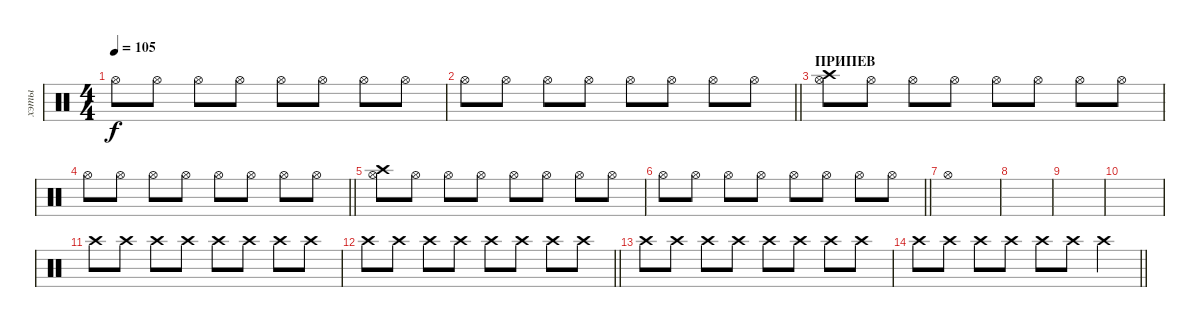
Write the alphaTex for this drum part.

\track ("хэты" "хэты") {instrument percussion}
\staff {score}
\articulation defaults
\ts (4 4)
\tempo 105
\clef neutral
\ks c "Hi-Hat (open)".8{dy f} "Hi-Hat (open)".8 "Hi-Hat (open)".8 "Hi-Hat (open)".8 "Hi-Hat (open)".8 "Hi-Hat (open)".8 "Hi-Hat (open)".8 "Hi-Hat (open)".8
|
\barLineRight lightlight "Hi-Hat (open)".8 "Hi-Hat (open)".8 "Hi-Hat (open)".8 "Hi-Hat (open)".8 "Hi-Hat (open)".8 "Hi-Hat (open)".8 "Hi-Hat (open)".8 "Hi-Hat (open)".8
|
\section ("" "ПРИПЕВ")
("Crash high (hit)" "Hi-Hat (open)").8 "Hi-Hat (open)".8 "Hi-Hat (open)".8 "Hi-Hat (open)".8 "Hi-Hat (open)".8 "Hi-Hat (open)".8 "Hi-Hat (open)".8 "Hi-Hat (open)".8 |
\barLineRight lightlight "Hi-Hat (open)".8 "Hi-Hat (open)".8 "Hi-Hat (open)".8 "Hi-Hat (open)".8 "Hi-Hat (open)".8 "Hi-Hat (open)".8 "Hi-Hat (open)".8 "Hi-Hat (open)".8
|
("Crash high (hit)" "Hi-Hat (open)").8 "Hi-Hat (open)".8 "Hi-Hat (open)".8 "Hi-Hat (open)".8 "Hi-Hat (open)".8 "Hi-Hat (open)".8 "Hi-Hat (open)".8 "Hi-Hat (open)".8 |
\barLineRight lightlight "Hi-Hat (open)".8 "Hi-Hat (open)".8 "Hi-Hat (open)".8 "Hi-Hat (open)".8 "Hi-Hat (open)".8 "Hi-Hat (open)".8 "Hi-Hat (open)".8 "Hi-Hat (open)".8
|
"Hi-Hat (open)".1 |
|
|
|
"Crash high (hit)".8 "Crash high (hit)".8 "Crash high (hit)".8 "Crash high (hit)".8 "Crash high (hit)".8 "Crash high (hit)".8 "Crash high (hit)".8 "Crash high (hit)".8 |
\barLineRight lightlight "Crash high (hit)".8 "Crash high (hit)".8 "Crash high (hit)".8 "Crash high (hit)".8 "Crash high (hit)".8 "Crash high (hit)".8 "Crash high (hit)".8 "Crash high (hit)".8
|
"Crash high (hit)".8 "Crash high (hit)".8 "Crash high (hit)".8 "Crash high (hit)".8 "Crash high (hit)".8 "Crash high (hit)".8 "Crash high (hit)".8 "Crash high (hit)".8 |
\barLineRight lightlight "Crash high (hit)".8 "Crash high (hit)".8 "Crash high (hit)".8 "Crash high (hit)".8 "Crash high (hit)".8 "Crash high (hit)".8 "Crash high (hit)".4
